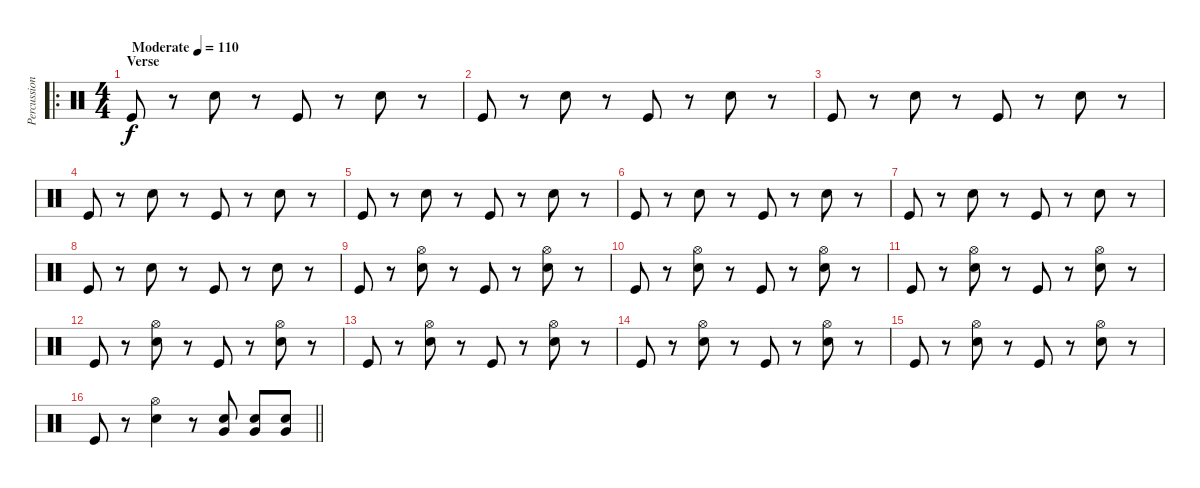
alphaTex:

\track ("Percussion" "Percussion") {instrument percussion}
\staff {score}
\articulation defaults
\ro
\ts (4 4)
\section ("" "Verse")
\tempo (110 "Moderate")
\clef neutral
\ks c "Kick (hit)".8{dy f}
r.8 "Snare (hit) 2".8 r.8 "Kick (hit)".8 r.8 "Snare (hit) 2".8 r.8 |
"Kick (hit)".8 r.8 "Snare (hit) 2".8 r.8 "Kick (hit)".8 r.8 "Snare (hit) 2".8 r.8 |
"Kick (hit)".8 r.8 "Snare (hit) 2".8 r.8 "Kick (hit)".8 r.8 "Snare (hit) 2".8 r.8 |
"Kick (hit)".8 r.8 "Snare (hit) 2".8 r.8 "Kick (hit)".8 r.8 "Snare (hit) 2".8 r.8 |
"Kick (hit)".8 r.8 "Snare (hit) 2".8 r.8 "Kick (hit)".8 r.8 "Snare (hit) 2".8 r.8 |
"Kick (hit)".8 r.8 "Snare (hit) 2".8 r.8 "Kick (hit)".8 r.8 "Snare (hit) 2".8 r.8 |
"Kick (hit)".8 r.8 "Snare (hit) 2".8 r.8 "Kick (hit)".8 r.8 "Snare (hit) 2".8 r.8 |
"Kick (hit)".8 r.8 "Snare (hit) 2".8 r.8 "Kick (hit)".8 r.8 "Snare (hit) 2".8 r.8 |
"Kick (hit)".8 r.8 ("Hi-Hat (open)" "Snare (hit) 2").8 r.8 "Kick (hit)".8 r.8 ("Hi-Hat (open)" "Snare (hit) 2").8 r.8 |
"Kick (hit)".8 r.8 ("Hi-Hat (open)" "Snare (hit) 2").8 r.8 "Kick (hit)".8 r.8 ("Hi-Hat (open)" "Snare (hit) 2").8 r.8 |
"Kick (hit)".8 r.8 ("Hi-Hat (open)" "Snare (hit) 2").8 r.8 "Kick (hit)".8 r.8 ("Hi-Hat (open)" "Snare (hit) 2").8 r.8 |
"Kick (hit)".8 r.8 ("Hi-Hat (open)" "Snare (hit) 2").8 r.8 "Kick (hit)".8 r.8 ("Hi-Hat (open)" "Snare (hit) 2").8 r.8 |
"Kick (hit)".8 r.8 ("Hi-Hat (open)" "Snare (hit) 2").8 r.8 "Kick (hit)".8 r.8 ("Hi-Hat (open)" "Snare (hit) 2").8 r.8 |
"Kick (hit)".8 r.8 ("Hi-Hat (open)" "Snare (hit) 2").8 r.8 "Kick (hit)".8 r.8 ("Hi-Hat (open)" "Snare (hit) 2").8 r.8 |
"Kick (hit)".8 r.8 ("Hi-Hat (open)" "Snare (hit) 2").8 r.8 "Kick (hit)".8 r.8 ("Hi-Hat (open)" "Snare (hit) 2").8 r.8 |
\barLineRight lightlight "Kick (hit)".8
r.8 ("Snare (hit) 2" "Hi-Hat (open)").4 r.8 ("Snare (hit) 2" "Very Low Tom (hit)").8 ("Snare (hit) 2" "Very Low Tom (hit)").8 ("Snare (hit) 2" "Very Low Tom (hit)").8
